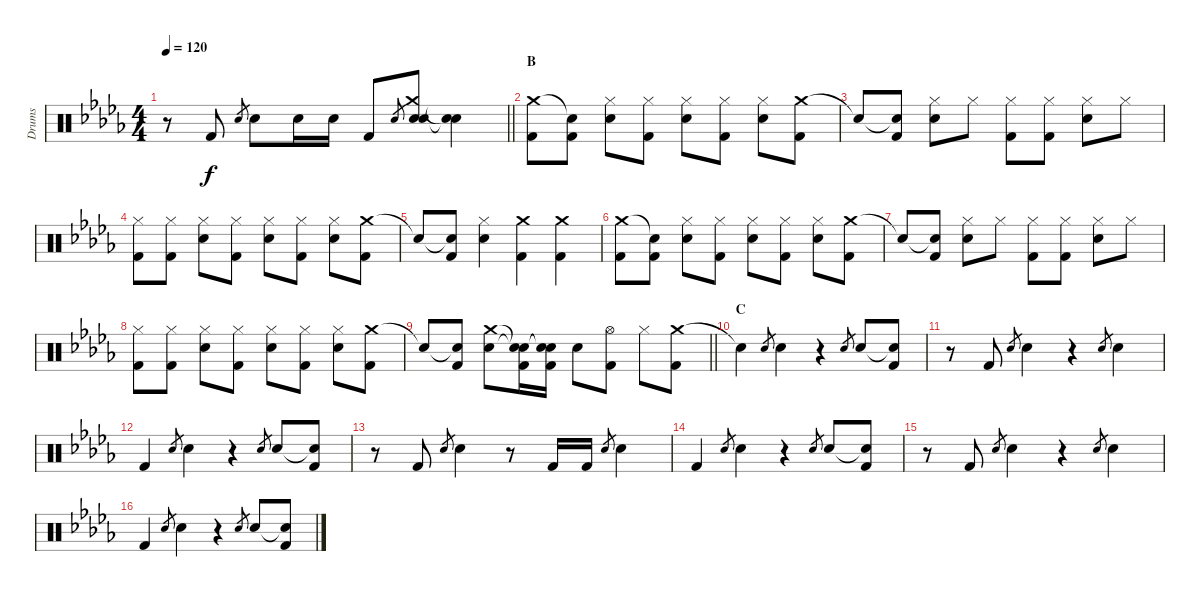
\track ("Drums" "Drums") {instrument percussion}
\staff {score}
\articulation defaults
\ts (4 4)
\tempo 120
\clef neutral
\barLineRight lightlight
\ks db
r.8{dy f} "Kick (hit) 2".8 "Electric Snare (hit)".8{gr} "Electric Snare (hit)".8 "Electric Snare (hit)".16 "Electric Snare (hit)".16 "Kick (hit) 2".8 "Electric Snare (hit)".8{gr} ("Crash medium (hit)" "Electric Snare (hit)" "Snare (hit)").8 ("Snare (hit)"{t} "Snare (hit)"{t}).4 |
\section ("" "B")
("Crash medium (hit)" "Kick (hit) 2").8 ("Snare (hit)"{t} "Kick (hit) 2").8 ("Hi-Hat (closed)" "Electric Snare (hit)").8 ("Hi-Hat (closed)" "Kick (hit) 2").8 ("Hi-Hat (closed)" "Electric Snare (hit)").8 ("Hi-Hat (closed)" "Kick (hit) 2").8 ("Hi-Hat (closed)" "Electric Snare (hit)").8 ("Crash medium (hit)" "Kick (hit) 2").8 |
"Snare (hit)"{t}.8 ("Snare (hit)"{t} "Kick (hit) 2").8 ("Hi-Hat (closed)" "Electric Snare (hit)").8 "Hi-Hat (closed)".8 ("Hi-Hat (closed)" "Kick (hit) 2").8 ("Hi-Hat (closed)" "Kick (hit) 2").8 ("Hi-Hat (closed)" "Electric Snare (hit)").8 "Hi-Hat (closed)".8 |
("Hi-Hat (closed)" "Kick (hit) 2").8 ("Hi-Hat (closed)" "Kick (hit) 2").8 ("Hi-Hat (closed)" "Electric Snare (hit)").8 ("Hi-Hat (closed)" "Kick (hit) 2").8 ("Hi-Hat (closed)" "Electric Snare (hit)").8 ("Hi-Hat (closed)" "Kick (hit) 2").8 ("Hi-Hat (closed)" "Electric Snare (hit)").8 ("Crash medium (hit)" "Kick (hit) 2").8 |
"Snare (hit)"{t}.8 ("Snare (hit)"{t} "Kick (hit) 2").8 ("Hi-Hat (closed)" "Electric Snare (hit)").4 ("Crash medium (hit)" "Kick (hit) 2").4 ("Crash medium (hit)" "Kick (hit) 2").4 |
("Crash medium (hit)" "Kick (hit) 2").8 ("Snare (hit)"{t} "Kick (hit) 2").8 ("Hi-Hat (closed)" "Electric Snare (hit)").8 ("Hi-Hat (closed)" "Kick (hit) 2").8 ("Hi-Hat (closed)" "Electric Snare (hit)").8 ("Hi-Hat (closed)" "Kick (hit) 2").8 ("Hi-Hat (closed)" "Electric Snare (hit)").8 ("Crash medium (hit)" "Kick (hit) 2").8 |
"Snare (hit)"{t}.8 ("Snare (hit)"{t} "Kick (hit) 2").8 ("Hi-Hat (closed)" "Electric Snare (hit)").8 "Hi-Hat (closed)".8 ("Hi-Hat (closed)" "Kick (hit) 2").8 ("Hi-Hat (closed)" "Kick (hit) 2").8 ("Hi-Hat (closed)" "Electric Snare (hit)").8 "Hi-Hat (closed)".8 |
("Hi-Hat (closed)" "Kick (hit) 2").8 ("Hi-Hat (closed)" "Kick (hit) 2").8 ("Hi-Hat (closed)" "Electric Snare (hit)").8 ("Hi-Hat (closed)" "Kick (hit) 2").8 ("Hi-Hat (closed)" "Electric Snare (hit)").8 ("Hi-Hat (closed)" "Kick (hit) 2").8 ("Hi-Hat (closed)" "Electric Snare (hit)").8 ("Crash medium (hit)" "Kick (hit) 2").8 |
\barLineRight lightlight "Snare (hit)"{t}.8
("Snare (hit)"{t} "Kick (hit) 2").8 ("Crash medium (hit)" "Electric Snare (hit)").8 ("Snare (hit)"{t} "Snare (hit)"{t} "Kick (hit) 2").16 ("Snare (hit)"{t} "Snare (hit)"{t} "Kick (hit) 2").16 "Electric Snare (hit)".8 ("Hi-Hat (open)" "Kick (hit) 2").8 "Hi-Hat (closed)".8 ("Crash medium (hit)" "Kick (hit) 2").8 |
\section ("" "C")
"Snare (hit)"{t}.4 "Electric Snare (hit)".8{gr} "Electric Snare (hit)".4 r.4 "Electric Snare (hit)".8{gr} "Electric Snare (hit)".8 ("Snare (hit)"{t} "Kick (hit) 2").8 |
r.8 "Kick (hit) 2".8 "Electric Snare (hit)".8{gr} "Electric Snare (hit)".4 r.4 "Electric Snare (hit)".8{gr} "Electric Snare (hit)".4 |
"Kick (hit) 2".4 "Electric Snare (hit)".8{gr} "Electric Snare (hit)".4 r.4 "Electric Snare (hit)".8{gr} "Electric Snare (hit)".8 ("Snare (hit)"{t} "Kick (hit) 2").8 |
r.8 "Kick (hit) 2".8 "Electric Snare (hit)".8{gr} "Electric Snare (hit)".4 r.8 "Kick (hit) 2".16 "Kick (hit) 2".16 "Electric Snare (hit)".8{gr} "Electric Snare (hit)".4 |
"Kick (hit) 2".4 "Electric Snare (hit)".8{gr} "Electric Snare (hit)".4 r.4 "Electric Snare (hit)".8{gr} "Electric Snare (hit)".8 ("Snare (hit)"{t} "Kick (hit) 2").8 |
r.8 "Kick (hit) 2".8 "Electric Snare (hit)".8{gr} "Electric Snare (hit)".4 r.4 "Electric Snare (hit)".8{gr} "Electric Snare (hit)".4 |
"Kick (hit) 2".4 "Electric Snare (hit)".8{gr} "Electric Snare (hit)".4 r.4 "Electric Snare (hit)".8{gr} "Electric Snare (hit)".8 ("Snare (hit)"{t} "Kick (hit) 2").8
